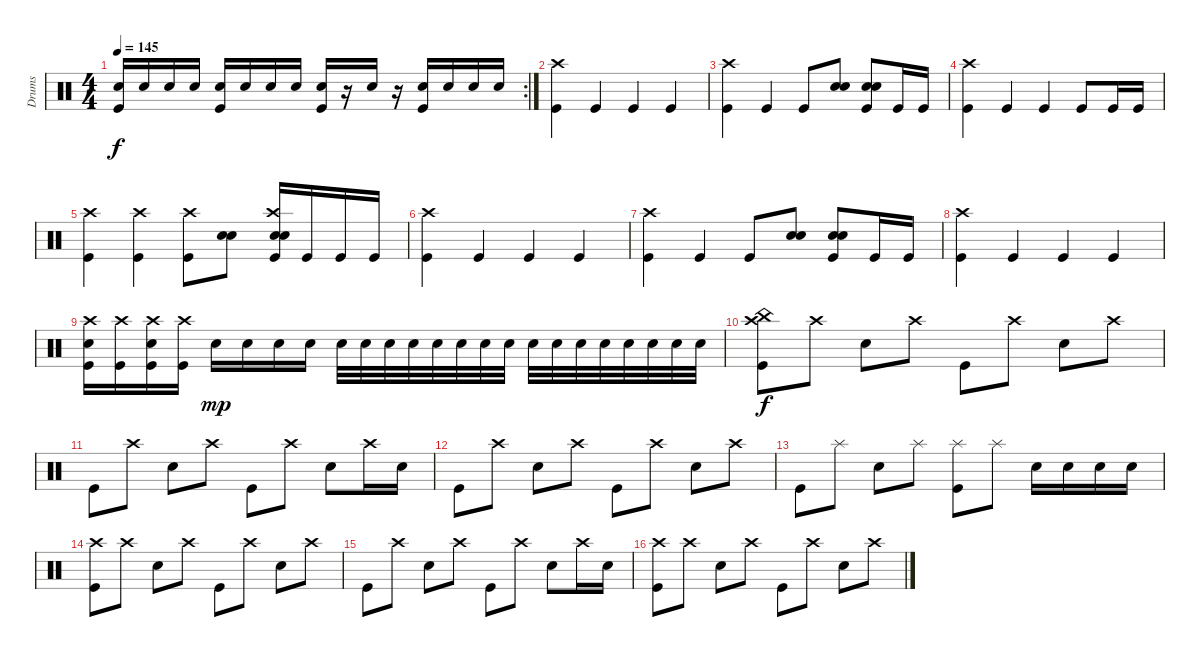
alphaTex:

\track ("Drums" "Drums") {instrument percussion}
\staff {score}
\articulation defaults
\rc 2
\ts (4 4)
\tempo 145
\clef neutral
\ks c
("Electric Snare (hit)" "Kick (hit)").16{dy f} "Electric Snare (hit)".16 "Electric Snare (hit)".16 "Electric Snare (hit)".16 ("Electric Snare (hit)" "Kick (hit)").16 "Electric Snare (hit)".16 "Electric Snare (hit)".16 "Electric Snare (hit)".16 ("Electric Snare (hit)" "Kick (hit)").16 r.16 "Electric Snare (hit)".16 r.16 ("Electric Snare (hit)" "Kick (hit)").16 "Electric Snare (hit)".16 "Electric Snare (hit)".16 "Electric Snare (hit)".16 |
("Crash high (hit)" "Kick (hit)").4 "Kick (hit)".4 "Kick (hit)".4 "Kick (hit)".4 |
("Crash high (hit)" "Kick (hit)").4 "Kick (hit)".4 "Kick (hit)".8 ("Hand Clap (hit)" "Hand Clap (hit)").8 ("Hand Clap (hit)" "Hand Clap (hit)" "Kick (hit)").8 "Kick (hit)".16 "Kick (hit)".16 |
("Crash high (hit)" "Kick (hit)").4 "Kick (hit)".4 "Kick (hit)".4 "Kick (hit)".8 "Kick (hit)".16 "Kick (hit)".16 |
("Crash high (hit)" "Kick (hit)").4 ("Crash high (hit)" "Kick (hit)").4 ("Crash high (hit)" "Kick (hit)").8 ("Hand Clap (hit)" "Hand Clap (hit)").8 ("Crash high (hit)" "Hand Clap (hit)" "Hand Clap (hit)" "Kick (hit)").16 "Kick (hit)".16 "Kick (hit)".16 "Kick (hit)".16 |
("Crash high (hit)" "Kick (hit)").4 "Kick (hit)".4 "Kick (hit)".4 "Kick (hit)".4 |
("Crash high (hit)" "Kick (hit)").4 "Kick (hit)".4 "Kick (hit)".8 ("Hand Clap (hit)" "Hand Clap (hit)").8 ("Hand Clap (hit)" "Hand Clap (hit)" "Kick (hit)").8 "Kick (hit)".16 "Kick (hit)".16 |
("Crash high (hit)" "Kick (hit)").4 "Kick (hit)".4 "Kick (hit)".4 "Kick (hit)".4 |
("Crash high (hit)" "Electric Snare (hit)" "Kick (hit)").16 ("Crash high (hit)" "Kick (hit)").16 ("Crash high (hit)" "Electric Snare (hit)" "Kick (hit)").16 ("Crash high (hit)" "Kick (hit)").16 "Electric Snare (hit)".16{dy mp} "Electric Snare (hit)".16 "Electric Snare (hit)".16 "Electric Snare (hit)".16 "Electric Snare (hit)".32 "Electric Snare (hit)".32 "Electric Snare (hit)".32 "Electric Snare (hit)".32 "Electric Snare (hit)".32 "Electric Snare (hit)".32 "Electric Snare (hit)".32 "Electric Snare (hit)".32 "Electric Snare (hit)".32 "Electric Snare (hit)".32 "Electric Snare (hit)".32 "Electric Snare (hit)".32 "Electric Snare (hit)".32 "Electric Snare (hit)".32 "Electric Snare (hit)".32 "Electric Snare (hit)".32 |
("Crash high (hit)" "China (hit)" "Kick (hit)").8{dy f} "Crash high (hit)".8 "Electric Snare (hit)".8 "Crash high (hit)".8 "Kick (hit)".8 "Crash high (hit)".8 "Electric Snare (hit)".8 "Crash high (hit)".8 |
"Kick (hit)".8 "Crash high (hit)".8 "Electric Snare (hit)".8 "Crash high (hit)".8 "Kick (hit)".8 "Crash high (hit)".8 "Electric Snare (hit)".8 "Crash high (hit)".16 "Electric Snare (hit)".16 |
"Kick (hit)".8 "Crash high (hit)".8 "Electric Snare (hit)".8 "Crash high (hit)".8 "Kick (hit)".8 "Crash high (hit)".8 "Electric Snare (hit)".8 "Crash high (hit)".8 |
"Kick (hit)".8 "Splash (hit)".8 "Electric Snare (hit)".8 "Splash (hit)".8 ("Splash (hit)" "Kick (hit)").8 "Splash (hit)".8 "Electric Snare (hit)".16 "Electric Snare (hit)".16 "Electric Snare (hit)".16 "Electric Snare (hit)".16 |
("Crash high (hit)" "Kick (hit)").8 "Crash high (hit)".8 "Electric Snare (hit)".8 "Crash high (hit)".8 "Kick (hit)".8 "Crash high (hit)".8 "Electric Snare (hit)".8 "Crash high (hit)".8 |
"Kick (hit)".8 "Crash high (hit)".8 "Electric Snare (hit)".8 "Crash high (hit)".8 "Kick (hit)".8 "Crash high (hit)".8 "Electric Snare (hit)".8 "Crash high (hit)".16 "Electric Snare (hit)".16 |
("Crash high (hit)" "Kick (hit)").8 "Crash high (hit)".8 "Electric Snare (hit)".8 "Crash high (hit)".8 "Kick (hit)".8 "Crash high (hit)".8 "Electric Snare (hit)".8 "Crash high (hit)".8
